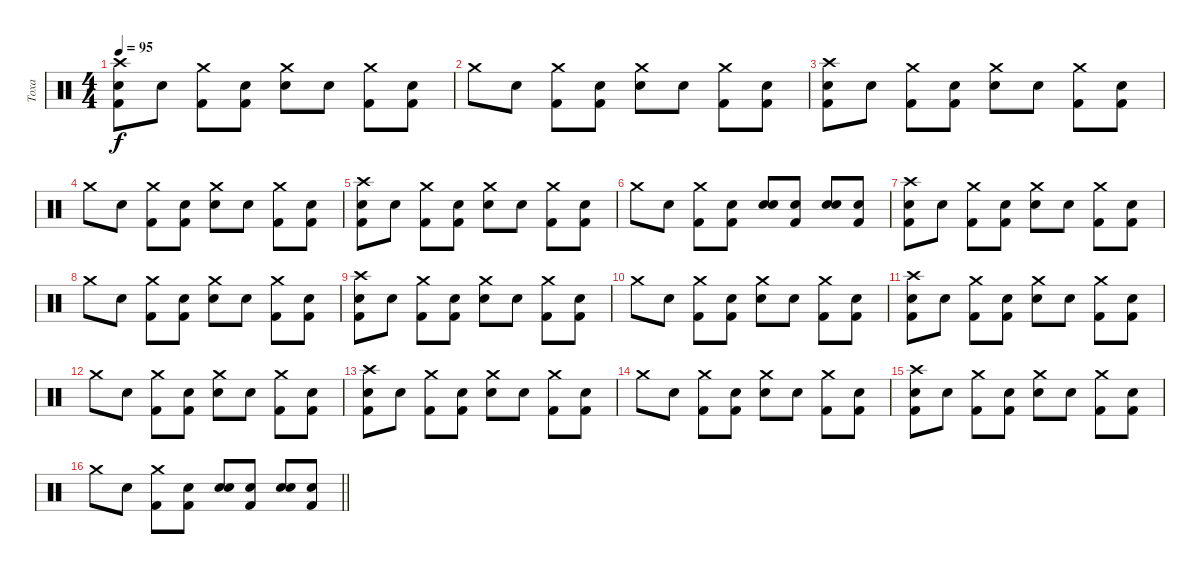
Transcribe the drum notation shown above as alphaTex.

\track ("Toxa" "Toxa") {instrument percussion}
\staff {score}
\articulation defaults
\ts (4 4)
\tempo 95
\clef neutral
\ks c
("Crash high (hit)" "Kick (hit) 2" "Snare (hit) 2").8{dy f} "Snare (hit)".8 ("Crash medium (hit)" "Kick (hit) 2").8 ("Snare (hit)" "Kick (hit) 2").8 ("Crash medium (hit)" "Electric Snare (hit)").8 "Snare (hit)".8 ("Crash medium (hit)" "Kick (hit) 2").8 ("Snare (hit)" "Kick (hit) 2").8 |
"Crash medium (hit)".8 "Snare (hit)".8 ("Crash medium (hit)" "Kick (hit) 2").8 ("Snare (hit)" "Kick (hit) 2").8 ("Crash medium (hit)" "Electric Snare (hit)").8 "Snare (hit)".8 ("Crash medium (hit)" "Kick (hit) 2").8 ("Snare (hit)" "Kick (hit) 2").8 |
("Crash high (hit)" "Kick (hit) 2" "Snare (hit) 2").8 "Snare (hit)".8 ("Crash medium (hit)" "Kick (hit) 2").8 ("Snare (hit)" "Kick (hit) 2").8 ("Crash medium (hit)" "Electric Snare (hit)").8 "Snare (hit)".8 ("Crash medium (hit)" "Kick (hit) 2").8 ("Snare (hit)" "Kick (hit) 2").8 |
"Crash medium (hit)".8 "Snare (hit)".8 ("Crash medium (hit)" "Kick (hit) 2").8 ("Snare (hit)" "Kick (hit) 2").8 ("Crash medium (hit)" "Electric Snare (hit)").8 "Snare (hit)".8 ("Crash medium (hit)" "Kick (hit) 2").8 ("Snare (hit)" "Kick (hit) 2").8 |
("Crash high (hit)" "Kick (hit) 2" "Snare (hit) 2").8 "Snare (hit)".8 ("Crash medium (hit)" "Kick (hit) 2").8 ("Snare (hit)" "Kick (hit) 2").8 ("Crash medium (hit)" "Electric Snare (hit)").8 "Snare (hit)".8 ("Crash medium (hit)" "Kick (hit) 2").8 ("Snare (hit)" "Kick (hit) 2").8 |
"Crash medium (hit)".8 "Snare (hit)".8 ("Crash medium (hit)" "Kick (hit) 2").8 ("Snare (hit)" "Kick (hit) 2").8 ("Snare (hit)" "Electric Snare (hit)").8 ("Snare (hit)" "Kick (hit) 2").8 ("Snare (hit)" "Electric Snare (hit)").8 ("Snare (hit)" "Kick (hit) 2").8 |
("Crash high (hit)" "Kick (hit) 2" "Snare (hit) 2").8 "Snare (hit)".8 ("Crash medium (hit)" "Kick (hit) 2").8 ("Snare (hit)" "Kick (hit) 2").8 ("Crash medium (hit)" "Electric Snare (hit)").8 "Snare (hit)".8 ("Crash medium (hit)" "Kick (hit) 2").8 ("Snare (hit)" "Kick (hit) 2").8 |
"Crash medium (hit)".8 "Snare (hit)".8 ("Crash medium (hit)" "Kick (hit) 2").8 ("Snare (hit)" "Kick (hit) 2").8 ("Crash medium (hit)" "Electric Snare (hit)").8 "Snare (hit)".8 ("Crash medium (hit)" "Kick (hit) 2").8 ("Snare (hit)" "Kick (hit) 2").8 |
("Crash high (hit)" "Kick (hit) 2" "Snare (hit) 2").8 "Snare (hit)".8 ("Crash medium (hit)" "Kick (hit) 2").8 ("Snare (hit)" "Kick (hit) 2").8 ("Crash medium (hit)" "Electric Snare (hit)").8 "Snare (hit)".8 ("Crash medium (hit)" "Kick (hit) 2").8 ("Snare (hit)" "Kick (hit) 2").8 |
"Crash medium (hit)".8 "Snare (hit)".8 ("Crash medium (hit)" "Kick (hit) 2").8 ("Snare (hit)" "Kick (hit) 2").8 ("Crash medium (hit)" "Electric Snare (hit)").8 "Snare (hit)".8 ("Crash medium (hit)" "Kick (hit) 2").8 ("Snare (hit)" "Kick (hit) 2").8 |
("Crash high (hit)" "Kick (hit) 2" "Snare (hit) 2").8 "Snare (hit)".8 ("Crash medium (hit)" "Kick (hit) 2").8 ("Snare (hit)" "Kick (hit) 2").8 ("Crash medium (hit)" "Electric Snare (hit)").8 "Snare (hit)".8 ("Crash medium (hit)" "Kick (hit) 2").8 ("Snare (hit)" "Kick (hit) 2").8 |
"Crash medium (hit)".8 "Snare (hit)".8 ("Crash medium (hit)" "Kick (hit) 2").8 ("Snare (hit)" "Kick (hit) 2").8 ("Crash medium (hit)" "Electric Snare (hit)").8 "Snare (hit)".8 ("Crash medium (hit)" "Kick (hit) 2").8 ("Snare (hit)" "Kick (hit) 2").8 |
("Crash high (hit)" "Kick (hit) 2" "Snare (hit) 2").8 "Snare (hit)".8 ("Crash medium (hit)" "Kick (hit) 2").8 ("Snare (hit)" "Kick (hit) 2").8 ("Crash medium (hit)" "Electric Snare (hit)").8 "Snare (hit)".8 ("Crash medium (hit)" "Kick (hit) 2").8 ("Snare (hit)" "Kick (hit) 2").8 |
"Crash medium (hit)".8 "Snare (hit)".8 ("Crash medium (hit)" "Kick (hit) 2").8 ("Snare (hit)" "Kick (hit) 2").8 ("Crash medium (hit)" "Electric Snare (hit)").8 "Snare (hit)".8 ("Crash medium (hit)" "Kick (hit) 2").8 ("Snare (hit)" "Kick (hit) 2").8 |
("Crash high (hit)" "Kick (hit) 2" "Snare (hit) 2").8 "Snare (hit)".8 ("Crash medium (hit)" "Kick (hit) 2").8 ("Snare (hit)" "Kick (hit) 2").8 ("Crash medium (hit)" "Electric Snare (hit)").8 "Snare (hit)".8 ("Crash medium (hit)" "Kick (hit) 2").8 ("Snare (hit)" "Kick (hit) 2").8 |
\barLineRight lightlight "Crash medium (hit)".8 "Snare (hit)".8
("Crash medium (hit)" "Kick (hit) 2").8 ("Snare (hit)" "Kick (hit) 2").8 ("Snare (hit)" "Electric Snare (hit)").8 ("Snare (hit)" "Kick (hit) 2").8 ("Snare (hit)" "Electric Snare (hit)").8 ("Snare (hit)" "Kick (hit) 2").8
